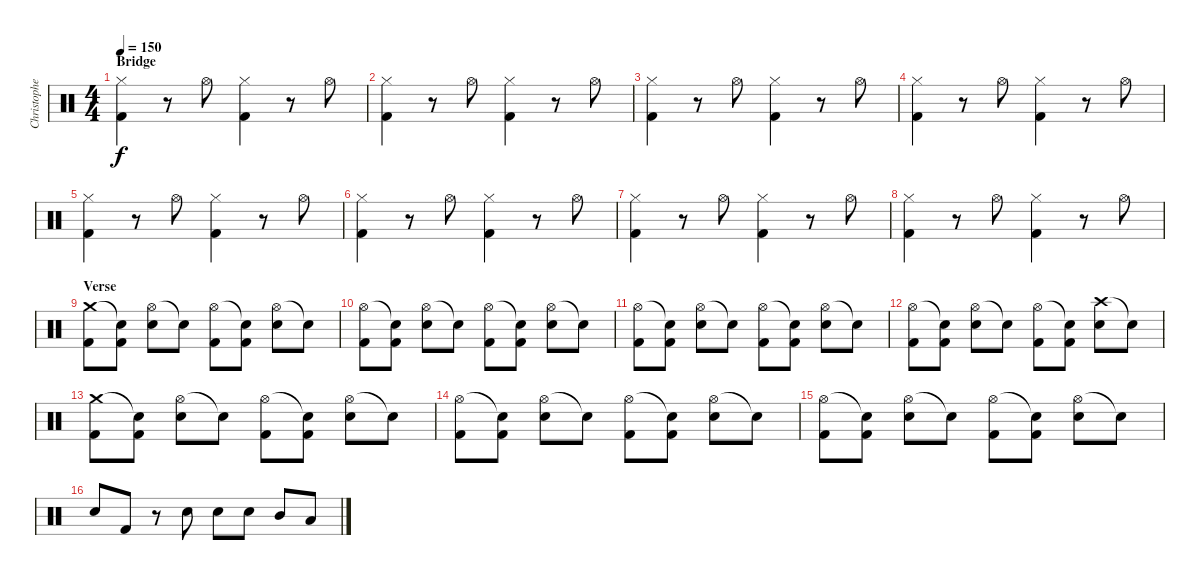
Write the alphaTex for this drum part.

\track ("Christopher Schneider" "Christophe") {instrument percussion}
\staff {score}
\articulation defaults
\ts (4 4)
\section ("" "Bridge")
\tempo 150
\clef neutral
\ks c
("Hi-Hat (closed)" "Kick (hit) 2").4{dy f} r.8 "Hi-Hat (open)".8 ("Hi-Hat (closed)" "Kick (hit) 2").4 r.8 "Hi-Hat (open)".8 |
("Hi-Hat (closed)" "Kick (hit) 2").4 r.8 "Hi-Hat (open)".8 ("Hi-Hat (closed)" "Kick (hit) 2").4 r.8 "Hi-Hat (open)".8 |
("Hi-Hat (closed)" "Kick (hit) 2").4 r.8 "Hi-Hat (open)".8 ("Hi-Hat (closed)" "Kick (hit) 2").4 r.8 "Hi-Hat (open)".8 |
("Hi-Hat (closed)" "Kick (hit) 2").4 r.8 "Hi-Hat (open)".8 ("Hi-Hat (closed)" "Kick (hit) 2").4 r.8 "Hi-Hat (open)".8 |
("Hi-Hat (closed)" "Kick (hit) 2").4 r.8 "Hi-Hat (open)".8 ("Hi-Hat (closed)" "Kick (hit) 2").4 r.8 "Hi-Hat (open)".8 |
("Hi-Hat (closed)" "Kick (hit) 2").4 r.8 "Hi-Hat (open)".8 ("Hi-Hat (closed)" "Kick (hit) 2").4 r.8 "Hi-Hat (open)".8 |
("Hi-Hat (closed)" "Kick (hit) 2").4 r.8 "Hi-Hat (open)".8 ("Hi-Hat (closed)" "Kick (hit) 2").4 r.8 "Hi-Hat (open)".8 |
("Hi-Hat (closed)" "Kick (hit) 2").4 r.8 "Hi-Hat (open)".8 ("Hi-Hat (closed)" "Kick (hit) 2").4 r.8 "Hi-Hat (open)".8 |
\section ("" "Verse")
("Crash medium (hit)" "Kick (hit) 2").8{volume 16} ("Snare (hit)"{t} "Kick (hit) 2").8 ("Hi-Hat (open)" "Electric Snare (hit)").8 "Snare (hit)"{t}.8 ("Hi-Hat (open)" "Kick (hit) 2").8 ("Snare (hit)"{t} "Kick (hit) 2").8 ("Hi-Hat (open)" "Electric Snare (hit)").8 "Snare (hit)"{t}.8 |
("Hi-Hat (open)" "Kick (hit) 2").8 ("Snare (hit)"{t} "Kick (hit) 2").8 ("Hi-Hat (open)" "Electric Snare (hit)").8 "Snare (hit)"{t}.8 ("Hi-Hat (open)" "Kick (hit) 2").8 ("Snare (hit)"{t} "Kick (hit) 2").8 ("Hi-Hat (open)" "Electric Snare (hit)").8 "Snare (hit)"{t}.8 |
("Hi-Hat (open)" "Kick (hit) 2").8 ("Snare (hit)"{t} "Kick (hit) 2").8 ("Hi-Hat (open)" "Electric Snare (hit)").8 "Snare (hit)"{t}.8 ("Hi-Hat (open)" "Kick (hit) 2").8 ("Snare (hit)"{t} "Kick (hit) 2").8 ("Hi-Hat (open)" "Electric Snare (hit)").8 "Snare (hit)"{t}.8 |
("Hi-Hat (open)" "Kick (hit) 2").8 ("Snare (hit)"{t} "Kick (hit) 2").8 ("Hi-Hat (open)" "Electric Snare (hit)").8 "Snare (hit)"{t}.8 ("Hi-Hat (open)" "Kick (hit) 2").8 ("Snare (hit)"{t} "Kick (hit) 2").8 ("Crash high (hit)" "Electric Snare (hit)").8 "Snare (hit)"{t}.8 |
("Crash medium (hit)" "Kick (hit) 2").8 ("Snare (hit)"{t} "Kick (hit) 2").8 ("Hi-Hat (open)" "Electric Snare (hit)").8 "Snare (hit)"{t}.8 ("Hi-Hat (open)" "Kick (hit) 2").8 ("Snare (hit)"{t} "Kick (hit) 2").8 ("Hi-Hat (open)" "Electric Snare (hit)").8 "Snare (hit)"{t}.8 |
("Hi-Hat (open)" "Kick (hit) 2").8 ("Snare (hit)"{t} "Kick (hit) 2").8 ("Hi-Hat (open)" "Electric Snare (hit)").8 "Snare (hit)"{t}.8 ("Hi-Hat (open)" "Kick (hit) 2").8 ("Snare (hit)"{t} "Kick (hit) 2").8 ("Hi-Hat (open)" "Electric Snare (hit)").8 "Snare (hit)"{t}.8 |
("Hi-Hat (open)" "Kick (hit) 2").8 ("Snare (hit)"{t} "Kick (hit) 2").8 ("Hi-Hat (open)" "Electric Snare (hit)").8 "Snare (hit)"{t}.8 ("Hi-Hat (open)" "Kick (hit) 2").8 ("Snare (hit)"{t} "Kick (hit) 2").8 ("Hi-Hat (open)" "Electric Snare (hit)").8 "Snare (hit)"{t}.8 |
"Electric Snare (hit)".8 "Kick (hit) 2".8 r.8 "Electric Snare (hit)".8 "Electric Snare (hit)".8 "Electric Snare (hit)".8 "Mid Tom (hit)".8 "Low Tom (hit)".8
